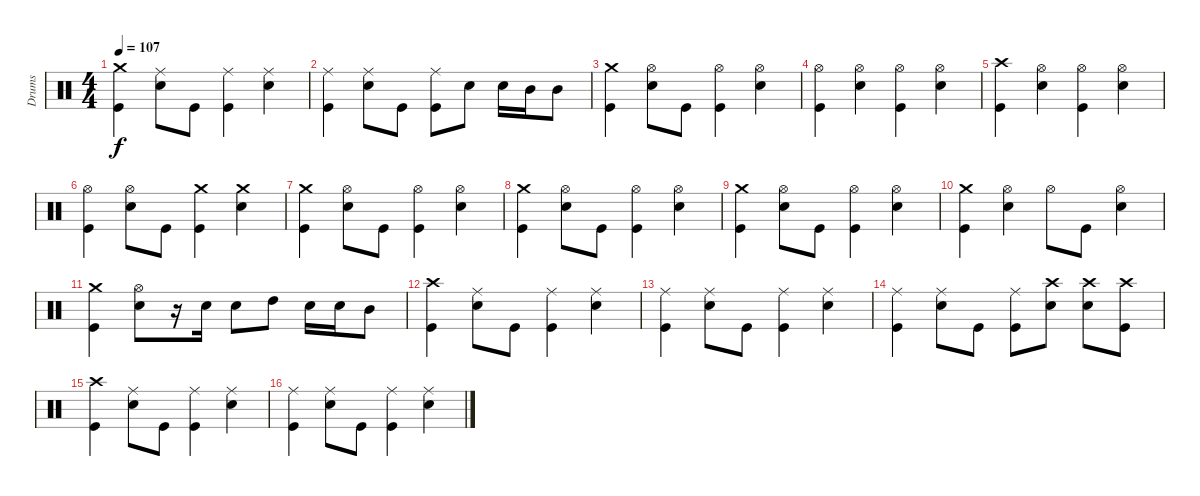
\track ("Drums" "Drums") {instrument percussion}
\staff {score}
\articulation defaults
\ts (4 4)
\tempo 107
\clef neutral
\ks c
("Crash medium (hit)" "Kick (hit)").4{dy f} ("Ride (middle)" "Snare (hit) 2").8 "Kick (hit)".8 ("Ride (middle)" "Kick (hit)").4 ("Ride (middle)" "Snare (hit) 2").4 |
("Ride (middle)" "Kick (hit)").4 ("Ride (middle)" "Snare (hit) 2").8 "Kick (hit)".8 ("Ride (middle)" "Kick (hit)").8 "Snare (hit) 2".8 "Snare (hit) 2".16 "Mid Tom (hit)".16 "Mid Tom (hit)".8 |
("Crash medium (hit)" "Kick (hit)").4 ("Hi-Hat (open)" "Snare (hit) 2").8 "Kick (hit)".8 ("Hi-Hat (open)" "Kick (hit)").4 ("Hi-Hat (open)" "Snare (hit) 2").4 |
("Hi-Hat (open)" "Kick (hit)").4 ("Hi-Hat (open)" "Snare (hit) 2").4 ("Hi-Hat (open)" "Kick (hit)").4 ("Hi-Hat (open)" "Snare (hit) 2").4 |
("Crash high (hit)" "Kick (hit)").4 ("Hi-Hat (open)" "Snare (hit) 2").4 ("Hi-Hat (open)" "Kick (hit)").4 ("Hi-Hat (open)" "Snare (hit) 2").4 |
("Hi-Hat (open)" "Kick (hit)").4 ("Hi-Hat (open)" "Snare (hit) 2").8 "Kick (hit)".8 ("Crash medium (hit)" "Kick (hit)").4 ("Crash medium (hit)" "Snare (hit) 2").4 |
("Crash medium (hit)" "Kick (hit)").4 ("Hi-Hat (open)" "Snare (hit) 2").8 "Kick (hit)".8 ("Hi-Hat (open)" "Kick (hit)").4 ("Hi-Hat (open)" "Snare (hit) 2").4 |
("Crash medium (hit)" "Kick (hit)").4 ("Hi-Hat (open)" "Snare (hit) 2").8 "Kick (hit)".8 ("Hi-Hat (open)" "Kick (hit)").4 ("Hi-Hat (open)" "Snare (hit) 2").4 |
("Crash medium (hit)" "Kick (hit)").4 ("Hi-Hat (open)" "Snare (hit) 2").8 "Kick (hit)".8 ("Hi-Hat (open)" "Kick (hit)").4 ("Hi-Hat (open)" "Snare (hit) 2").4 |
("Crash medium (hit)" "Kick (hit)").4 ("Hi-Hat (open)" "Snare (hit) 2").4 "Hi-Hat (open)".8 "Kick (hit)".8 ("Hi-Hat (open)" "Snare (hit) 2").4 |
("Crash medium (hit)" "Kick (hit)").4 ("Hi-Hat (open)" "Snare (hit) 2").8 r.16 "Snare (hit) 2".16 "Snare (hit) 2".8 "High Tom (hit)".8 "Snare (hit) 2".16 "Snare (hit) 2".16 "Mid Tom (hit)".8 |
("Crash high (hit)" "Kick (hit)").4 ("Ride (middle)" "Snare (hit) 2").8 "Kick (hit)".8 ("Ride (middle)" "Kick (hit)").4 ("Ride (middle)" "Snare (hit) 2").4 |
("Ride (middle)" "Kick (hit)").4 ("Ride (middle)" "Snare (hit) 2").8 "Kick (hit)".8 ("Ride (middle)" "Kick (hit)").4 ("Ride (middle)" "Snare (hit) 2").4 |
("Ride (middle)" "Kick (hit)").4 ("Ride (middle)" "Snare (hit) 2").8 "Kick (hit)".8 ("Ride (middle)" "Kick (hit)").8 ("Crash high (hit)" "Snare (hit) 2").8 ("Crash high (hit)" "Snare (hit) 2").8 ("Crash high (hit)" "Kick (hit)").8 |
("Crash high (hit)" "Kick (hit)").4 ("Ride (middle)" "Snare (hit) 2").8 "Kick (hit)".8 ("Ride (middle)" "Kick (hit)").4 ("Ride (middle)" "Snare (hit) 2").4 |
("Ride (middle)" "Kick (hit)").4 ("Ride (middle)" "Snare (hit) 2").8 "Kick (hit)".8 ("Ride (middle)" "Kick (hit)").4 ("Ride (middle)" "Snare (hit) 2").4
